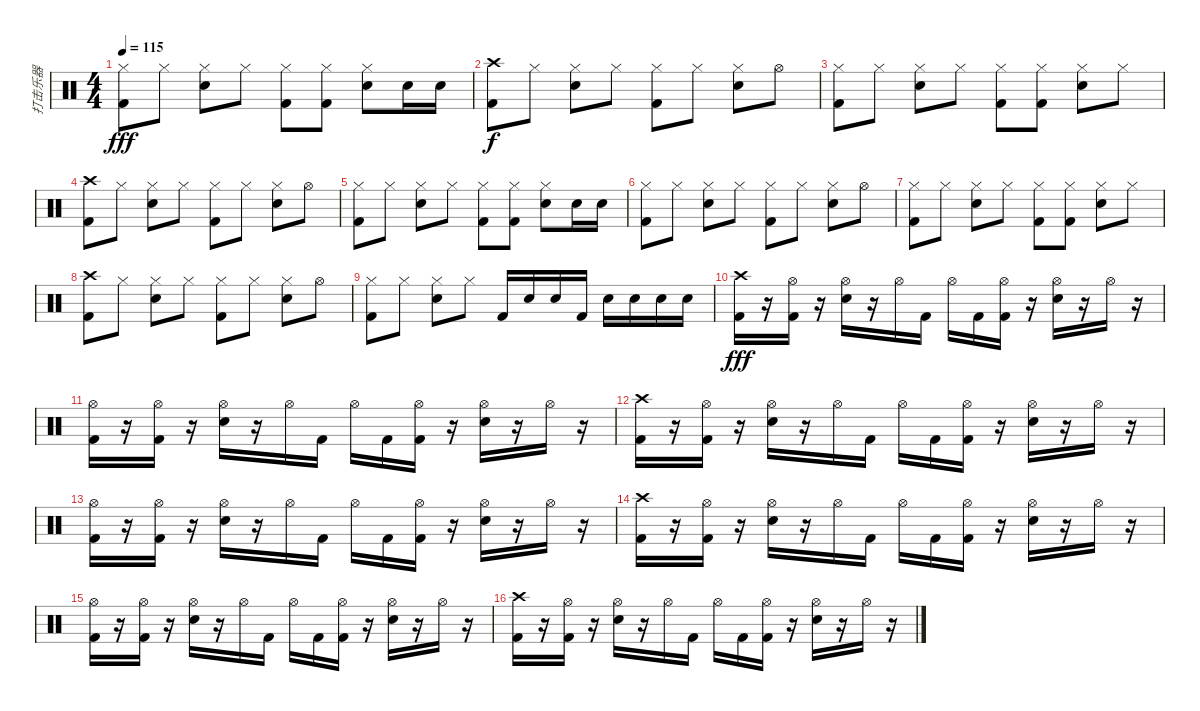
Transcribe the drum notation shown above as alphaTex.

\track ("打击乐器" "打击乐器") {instrument percussion}
\staff {score}
\articulation defaults
\ts (4 4)
\tempo 115
\clef neutral
\ks c
("Hi-Hat (closed)" "Kick (hit) 2").8{dy fff} "Hi-Hat (closed)".8 ("Hi-Hat (closed)" "Electric Snare (hit)").8 "Hi-Hat (closed)".8 ("Hi-Hat (closed)" "Kick (hit) 2").8 ("Hi-Hat (closed)" "Kick (hit) 2").8 ("Hi-Hat (closed)" "Electric Snare (hit)").8 "Electric Snare (hit)".16 "Electric Snare (hit)".16 |
("Crash high (hit)" "Kick (hit) 2").8{dy f} "Hi-Hat (closed)".8 ("Hi-Hat (closed)" "Electric Snare (hit)").8 "Hi-Hat (closed)".8 ("Hi-Hat (closed)" "Kick (hit) 2").8 "Hi-Hat (closed)".8 ("Hi-Hat (closed)" "Electric Snare (hit)").8 "Hi-Hat (open)".8 |
("Hi-Hat (closed)" "Kick (hit) 2").8 "Hi-Hat (closed)".8 ("Hi-Hat (closed)" "Electric Snare (hit)").8 "Hi-Hat (closed)".8 ("Hi-Hat (closed)" "Kick (hit) 2").8 ("Hi-Hat (closed)" "Kick (hit) 2").8 ("Hi-Hat (closed)" "Electric Snare (hit)").8 "Hi-Hat (closed)".8 |
("Crash high (hit)" "Kick (hit) 2").8 "Hi-Hat (closed)".8 ("Hi-Hat (closed)" "Electric Snare (hit)").8 "Hi-Hat (closed)".8 ("Hi-Hat (closed)" "Kick (hit) 2").8 "Hi-Hat (closed)".8 ("Hi-Hat (closed)" "Electric Snare (hit)").8 "Hi-Hat (open)".8 |
("Hi-Hat (closed)" "Kick (hit) 2").8 "Hi-Hat (closed)".8 ("Hi-Hat (closed)" "Electric Snare (hit)").8 "Hi-Hat (closed)".8 ("Hi-Hat (closed)" "Kick (hit) 2").8 ("Hi-Hat (closed)" "Kick (hit) 2").8 ("Hi-Hat (closed)" "Electric Snare (hit)").8 "Electric Snare (hit)".16 "Electric Snare (hit)".16 |
("Hi-Hat (closed)" "Kick (hit) 2").8 "Hi-Hat (closed)".8 ("Hi-Hat (closed)" "Electric Snare (hit)").8 "Hi-Hat (closed)".8 ("Hi-Hat (closed)" "Kick (hit) 2").8 "Hi-Hat (closed)".8 ("Hi-Hat (closed)" "Electric Snare (hit)").8 "Hi-Hat (open)".8 |
("Hi-Hat (closed)" "Kick (hit) 2").8 "Hi-Hat (closed)".8 ("Hi-Hat (closed)" "Electric Snare (hit)").8 "Hi-Hat (closed)".8 ("Hi-Hat (closed)" "Kick (hit) 2").8 ("Hi-Hat (closed)" "Kick (hit) 2").8 ("Hi-Hat (closed)" "Electric Snare (hit)").8 "Hi-Hat (closed)".8 |
("Crash high (hit)" "Kick (hit) 2").8 "Hi-Hat (closed)".8 ("Hi-Hat (closed)" "Electric Snare (hit)").8 "Hi-Hat (closed)".8 ("Hi-Hat (closed)" "Kick (hit) 2").8 "Hi-Hat (closed)".8 ("Hi-Hat (closed)" "Electric Snare (hit)").8 "Hi-Hat (open)".8 |
("Hi-Hat (closed)" "Kick (hit) 2").8 "Hi-Hat (closed)".8 ("Hi-Hat (closed)" "Electric Snare (hit)").8 "Hi-Hat (closed)".8 "Kick (hit) 2".16 "Electric Snare (hit)".16 "Snare (hit)".16 "Kick (hit) 2".16 "Electric Snare (hit)".16 "Electric Snare (hit)".16 "Electric Snare (hit)".16 "Electric Snare (hit)".16 |
("Crash high (hit)" "Kick (hit) 2").16{dy fff} r.16 ("Hi-Hat (open)" "Kick (hit) 2").16 r.16 ("Hi-Hat (open)" "Electric Snare (hit)").16 r.16 "Hi-Hat (open)".16 "Kick (hit) 2".16 "Hi-Hat (open)".16 "Kick (hit) 2".16 ("Hi-Hat (open)" "Kick (hit) 2").16 r.16 ("Hi-Hat (open)" "Electric Snare (hit)").16 r.16 "Hi-Hat (open)".16 r.16 |
("Hi-Hat (open)" "Kick (hit) 2").16 r.16 ("Hi-Hat (open)" "Kick (hit) 2").16 r.16 ("Hi-Hat (open)" "Electric Snare (hit)").16 r.16 "Hi-Hat (open)".16 "Kick (hit) 2".16 "Hi-Hat (open)".16 "Kick (hit) 2".16 ("Hi-Hat (open)" "Kick (hit) 2").16 r.16 ("Hi-Hat (open)" "Electric Snare (hit)").16 r.16 "Hi-Hat (open)".16 r.16 |
("Crash high (hit)" "Kick (hit) 2").16 r.16 ("Hi-Hat (open)" "Kick (hit) 2").16 r.16 ("Hi-Hat (open)" "Electric Snare (hit)").16 r.16 "Hi-Hat (open)".16 "Kick (hit) 2".16 "Hi-Hat (open)".16 "Kick (hit) 2".16 ("Hi-Hat (open)" "Kick (hit) 2").16 r.16 ("Hi-Hat (open)" "Electric Snare (hit)").16 r.16 "Hi-Hat (open)".16 r.16 |
("Hi-Hat (open)" "Kick (hit) 2").16 r.16 ("Hi-Hat (open)" "Kick (hit) 2").16 r.16 ("Hi-Hat (open)" "Electric Snare (hit)").16 r.16 "Hi-Hat (open)".16 "Kick (hit) 2".16 "Hi-Hat (open)".16 "Kick (hit) 2".16 ("Hi-Hat (open)" "Kick (hit) 2").16 r.16 ("Hi-Hat (open)" "Electric Snare (hit)").16 r.16 "Hi-Hat (open)".16 r.16 |
("Crash high (hit)" "Kick (hit) 2").16 r.16 ("Hi-Hat (open)" "Kick (hit) 2").16 r.16 ("Hi-Hat (open)" "Electric Snare (hit)").16 r.16 "Hi-Hat (open)".16 "Kick (hit) 2".16 "Hi-Hat (open)".16 "Kick (hit) 2".16 ("Hi-Hat (open)" "Kick (hit) 2").16 r.16 ("Hi-Hat (open)" "Electric Snare (hit)").16 r.16 "Hi-Hat (open)".16 r.16 |
("Hi-Hat (open)" "Kick (hit) 2").16 r.16 ("Hi-Hat (open)" "Kick (hit) 2").16 r.16 ("Hi-Hat (open)" "Electric Snare (hit)").16 r.16 "Hi-Hat (open)".16 "Kick (hit) 2".16 "Hi-Hat (open)".16 "Kick (hit) 2".16 ("Hi-Hat (open)" "Kick (hit) 2").16 r.16 ("Hi-Hat (open)" "Electric Snare (hit)").16 r.16 "Hi-Hat (open)".16 r.16 |
("Crash high (hit)" "Kick (hit) 2").16 r.16 ("Hi-Hat (open)" "Kick (hit) 2").16 r.16 ("Hi-Hat (open)" "Electric Snare (hit)").16 r.16 "Hi-Hat (open)".16 "Kick (hit) 2".16 "Hi-Hat (open)".16 "Kick (hit) 2".16 ("Hi-Hat (open)" "Kick (hit) 2").16 r.16 ("Hi-Hat (open)" "Electric Snare (hit)").16 r.16 "Hi-Hat (open)".16 r.16
